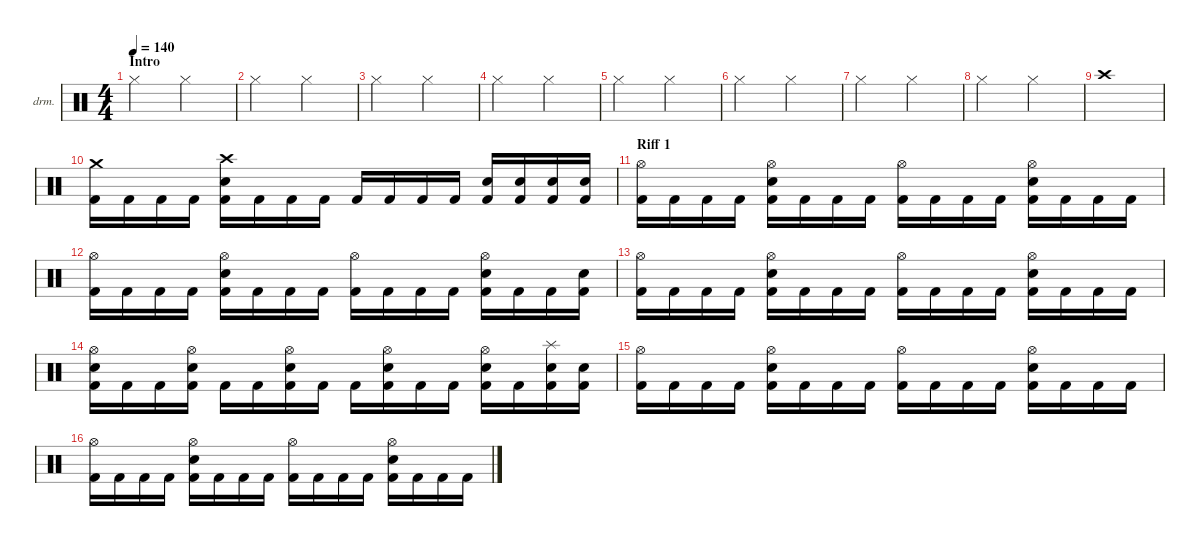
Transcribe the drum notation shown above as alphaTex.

\defaultSystemsLayout 4
\hideDynamics
\bracketExtendMode nobrackets
\firstSystemTrackNameOrientation horizontal
\otherSystemsTrackNameOrientation horizontal
\track ("Drumkit" "drm.") {instrument percussion}
\staff {score}
\articulation defaults
\ts (4 4)
\beaming (8 2 2 2 2)
\section ("" "Intro")
\tempo 140
\clef neutral
\ks c "Hi-Hat (closed)".2{dy mf} "Hi-Hat (closed)".2
|
"Hi-Hat (closed)".2 "Hi-Hat (closed)".2 |
"Hi-Hat (closed)".2 "Hi-Hat (closed)".2 |
"Hi-Hat (closed)".2 "Hi-Hat (closed)".2 |
"Hi-Hat (closed)".2 "Hi-Hat (closed)".2 |
"Hi-Hat (closed)".2 "Hi-Hat (closed)".2 |
"Hi-Hat (closed)".2 "Hi-Hat (closed)".2 |
"Hi-Hat (closed)".2 "Hi-Hat (closed)".2 |
"Crash high (hit)".1 |
("Crash medium (hit)" "Kick (hit) 2").16{dy f} "Kick (hit) 2".16 "Kick (hit) 2".16 "Kick (hit) 2".16 ("Crash high (hit)" "Snare (hit) 2" "Kick (hit) 2").16 "Kick (hit) 2".16 "Kick (hit) 2".16 "Kick (hit) 2".16 "Kick (hit) 2".16 "Kick (hit) 2".16 "Kick (hit) 2".16 "Kick (hit) 2".16 ("Snare (hit) 2" "Kick (hit) 2").16 ("Snare (hit) 2" "Kick (hit) 2").16 ("Snare (hit) 2" "Kick (hit) 2").16 ("Snare (hit) 2" "Kick (hit) 2").16 |
\section ("" "Riff 1")
("Hi-Hat (open)" "Kick (hit) 2").16{dy ff} "Kick (hit) 2".16 "Kick (hit) 2".16 "Kick (hit) 2".16 ("Hi-Hat (open)" "Snare (hit) 2" "Kick (hit) 2").16 "Kick (hit) 2".16 "Kick (hit) 2".16 "Kick (hit) 2".16 ("Hi-Hat (open)" "Kick (hit) 2").16 "Kick (hit) 2".16 "Kick (hit) 2".16 "Kick (hit) 2".16 ("Hi-Hat (open)" "Snare (hit) 2" "Kick (hit) 2").16 "Kick (hit) 2".16 "Kick (hit) 2".16 "Kick (hit) 2".16 |
("Hi-Hat (open)" "Kick (hit) 2").16 "Kick (hit) 2".16 "Kick (hit) 2".16 "Kick (hit) 2".16 ("Hi-Hat (open)" "Snare (hit) 2" "Kick (hit) 2").16 "Kick (hit) 2".16 "Kick (hit) 2".16 "Kick (hit) 2".16 ("Hi-Hat (open)" "Kick (hit) 2").16 "Kick (hit) 2".16 "Kick (hit) 2".16 "Kick (hit) 2".16 ("Hi-Hat (open)" "Snare (hit) 2" "Kick (hit) 2").16 "Kick (hit) 2".16 "Kick (hit) 2".16 ("Snare (hit) 2" "Kick (hit) 2").16 |
("Hi-Hat (open)" "Kick (hit) 2").16 "Kick (hit) 2".16 "Kick (hit) 2".16 "Kick (hit) 2".16 ("Hi-Hat (open)" "Snare (hit) 2" "Kick (hit) 2").16 "Kick (hit) 2".16 "Kick (hit) 2".16 "Kick (hit) 2".16 ("Hi-Hat (open)" "Kick (hit) 2").16 "Kick (hit) 2".16 "Kick (hit) 2".16 "Kick (hit) 2".16 ("Hi-Hat (open)" "Snare (hit) 2" "Kick (hit) 2").16 "Kick (hit) 2".16 "Kick (hit) 2".16 "Kick (hit) 2".16 |
("Hi-Hat (open)" "Snare (hit) 2" "Kick (hit) 2").16 "Kick (hit) 2".16 "Kick (hit) 2".16 ("Hi-Hat (open)" "Snare (hit) 2" "Kick (hit) 2").16 "Kick (hit) 2".16 "Kick (hit) 2".16 ("Hi-Hat (open)" "Snare (hit) 2" "Kick (hit) 2").16 "Kick (hit) 2".16 "Kick (hit) 2".16 ("Hi-Hat (open)" "Snare (hit) 2" "Kick (hit) 2").16 "Kick (hit) 2".16 "Kick (hit) 2".16 ("Hi-Hat (open)" "Snare (hit) 2" "Kick (hit) 2").16 "Kick (hit) 2".16 ("Splash (hit)" "Snare (hit) 2" "Kick (hit) 2").16 ("Snare (hit) 2" "Kick (hit) 2").16 |
("Hi-Hat (open)" "Kick (hit) 2").16 "Kick (hit) 2".16 "Kick (hit) 2".16 "Kick (hit) 2".16 ("Hi-Hat (open)" "Snare (hit) 2" "Kick (hit) 2").16 "Kick (hit) 2".16 "Kick (hit) 2".16 "Kick (hit) 2".16 ("Hi-Hat (open)" "Kick (hit) 2").16 "Kick (hit) 2".16 "Kick (hit) 2".16 "Kick (hit) 2".16 ("Hi-Hat (open)" "Snare (hit) 2" "Kick (hit) 2").16 "Kick (hit) 2".16 "Kick (hit) 2".16 "Kick (hit) 2".16 |
("Hi-Hat (open)" "Kick (hit) 2").16 "Kick (hit) 2".16 "Kick (hit) 2".16 "Kick (hit) 2".16 ("Hi-Hat (open)" "Snare (hit) 2" "Kick (hit) 2").16 "Kick (hit) 2".16 "Kick (hit) 2".16 "Kick (hit) 2".16 ("Hi-Hat (open)" "Kick (hit) 2").16 "Kick (hit) 2".16 "Kick (hit) 2".16 "Kick (hit) 2".16 ("Hi-Hat (open)" "Snare (hit) 2" "Kick (hit) 2").16 "Kick (hit) 2".16 "Kick (hit) 2".16 "Kick (hit) 2".16
